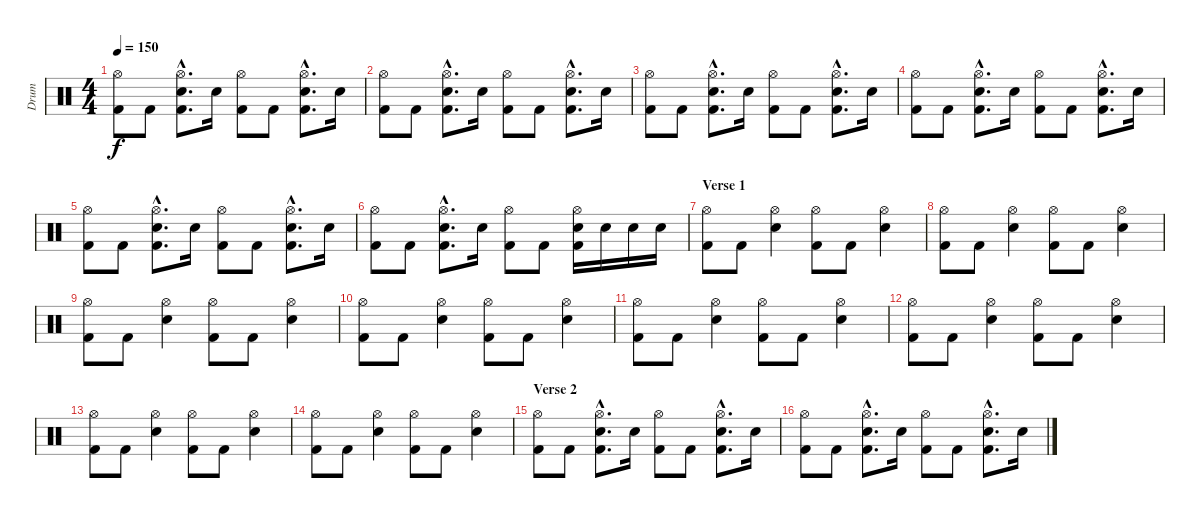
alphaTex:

\track ("Drum" "Drum") {instrument percussion}
\staff {score}
\articulation defaults
\ts (4 4)
\tempo 150
\clef neutral
\ks c
("Hi-Hat (open)" "Kick (hit) 2").8{dy f} "Kick (hit) 2".8 ("Hi-Hat (open)"{hac} "Snare (hit) 2"{hac} "Kick (hit) 2"{hac}).8{d} "Snare (hit) 2".16 ("Hi-Hat (open)" "Kick (hit) 2").8 "Kick (hit) 2".8 ("Hi-Hat (open)"{hac} "Snare (hit) 2"{hac} "Kick (hit) 2"{hac}).8{d} "Snare (hit) 2".16 |
("Hi-Hat (open)" "Kick (hit) 2").8 "Kick (hit) 2".8 ("Hi-Hat (open)"{hac} "Snare (hit) 2"{hac} "Kick (hit) 2"{hac}).8{d} "Snare (hit) 2".16 ("Hi-Hat (open)" "Kick (hit) 2").8 "Kick (hit) 2".8 ("Hi-Hat (open)"{hac} "Snare (hit) 2"{hac} "Kick (hit) 2"{hac}).8{d} "Snare (hit) 2".16 |
("Hi-Hat (open)" "Kick (hit) 2").8 "Kick (hit) 2".8 ("Hi-Hat (open)"{hac} "Snare (hit) 2"{hac} "Kick (hit) 2"{hac}).8{d} "Snare (hit) 2".16 ("Hi-Hat (open)" "Kick (hit) 2").8 "Kick (hit) 2".8 ("Hi-Hat (open)"{hac} "Snare (hit) 2"{hac} "Kick (hit) 2"{hac}).8{d} "Snare (hit) 2".16 |
("Hi-Hat (open)" "Kick (hit) 2").8 "Kick (hit) 2".8 ("Hi-Hat (open)"{hac} "Snare (hit) 2"{hac} "Kick (hit) 2"{hac}).8{d} "Snare (hit) 2".16 ("Hi-Hat (open)" "Kick (hit) 2").8 "Kick (hit) 2".8 ("Hi-Hat (open)"{hac} "Snare (hit) 2"{hac} "Kick (hit) 2"{hac}).8{d} "Snare (hit) 2".16 |
("Hi-Hat (open)" "Kick (hit) 2").8 "Kick (hit) 2".8 ("Hi-Hat (open)"{hac} "Snare (hit) 2"{hac} "Kick (hit) 2"{hac}).8{d} "Snare (hit) 2".16 ("Hi-Hat (open)" "Kick (hit) 2").8 "Kick (hit) 2".8 ("Hi-Hat (open)"{hac} "Snare (hit) 2"{hac} "Kick (hit) 2"{hac}).8{d} "Snare (hit) 2".16 |
("Hi-Hat (open)" "Kick (hit) 2").8 "Kick (hit) 2".8 ("Hi-Hat (open)"{hac} "Snare (hit) 2"{hac} "Kick (hit) 2"{hac}).8{d} "Snare (hit) 2".16 ("Hi-Hat (open)" "Kick (hit) 2").8 "Kick (hit) 2".8 ("Hi-Hat (open)" "Snare (hit) 2" "Kick (hit) 2").16 "Snare (hit) 2".16 "Snare (hit) 2".16 "Snare (hit) 2".16 |
\section ("" "Verse 1")
("Hi-Hat (open)" "Kick (hit) 2").8 "Kick (hit) 2".8 ("Hi-Hat (open)" "Snare (hit) 2").4 ("Hi-Hat (open)" "Kick (hit) 2").8 "Kick (hit) 2".8 ("Hi-Hat (open)" "Snare (hit) 2").4 |
("Hi-Hat (open)" "Kick (hit) 2").8 "Kick (hit) 2".8 ("Hi-Hat (open)" "Snare (hit) 2").4 ("Hi-Hat (open)" "Kick (hit) 2").8 "Kick (hit) 2".8 ("Hi-Hat (open)" "Snare (hit) 2").4 |
("Hi-Hat (open)" "Kick (hit) 2").8 "Kick (hit) 2".8 ("Hi-Hat (open)" "Snare (hit) 2").4 ("Hi-Hat (open)" "Kick (hit) 2").8 "Kick (hit) 2".8 ("Hi-Hat (open)" "Snare (hit) 2").4 |
("Hi-Hat (open)" "Kick (hit) 2").8 "Kick (hit) 2".8 ("Hi-Hat (open)" "Snare (hit) 2").4 ("Hi-Hat (open)" "Kick (hit) 2").8 "Kick (hit) 2".8 ("Hi-Hat (open)" "Snare (hit) 2").4 |
("Hi-Hat (open)" "Kick (hit) 2").8 "Kick (hit) 2".8 ("Hi-Hat (open)" "Snare (hit) 2").4 ("Hi-Hat (open)" "Kick (hit) 2").8 "Kick (hit) 2".8 ("Hi-Hat (open)" "Snare (hit) 2").4 |
("Hi-Hat (open)" "Kick (hit) 2").8 "Kick (hit) 2".8 ("Hi-Hat (open)" "Snare (hit) 2").4 ("Hi-Hat (open)" "Kick (hit) 2").8 "Kick (hit) 2".8 ("Hi-Hat (open)" "Snare (hit) 2").4 |
("Hi-Hat (open)" "Kick (hit) 2").8 "Kick (hit) 2".8 ("Hi-Hat (open)" "Snare (hit) 2").4 ("Hi-Hat (open)" "Kick (hit) 2").8 "Kick (hit) 2".8 ("Hi-Hat (open)" "Snare (hit) 2").4 |
("Hi-Hat (open)" "Kick (hit) 2").8 "Kick (hit) 2".8 ("Hi-Hat (open)" "Snare (hit) 2").4 ("Hi-Hat (open)" "Kick (hit) 2").8 "Kick (hit) 2".8 ("Hi-Hat (open)" "Snare (hit) 2").4 |
\section ("" "Verse 2")
("Hi-Hat (open)" "Kick (hit) 2").8 "Kick (hit) 2".8 ("Hi-Hat (open)"{hac} "Snare (hit) 2"{hac} "Kick (hit) 2"{hac}).8{d} "Snare (hit) 2".16 ("Hi-Hat (open)" "Kick (hit) 2").8 "Kick (hit) 2".8 ("Hi-Hat (open)"{hac} "Snare (hit) 2"{hac} "Kick (hit) 2"{hac}).8{d} "Snare (hit) 2".16 |
("Hi-Hat (open)" "Kick (hit) 2").8 "Kick (hit) 2".8 ("Hi-Hat (open)"{hac} "Snare (hit) 2"{hac} "Kick (hit) 2"{hac}).8{d} "Snare (hit) 2".16 ("Hi-Hat (open)" "Kick (hit) 2").8 "Kick (hit) 2".8 ("Hi-Hat (open)"{hac} "Snare (hit) 2"{hac} "Kick (hit) 2"{hac}).8{d} "Snare (hit) 2".16
